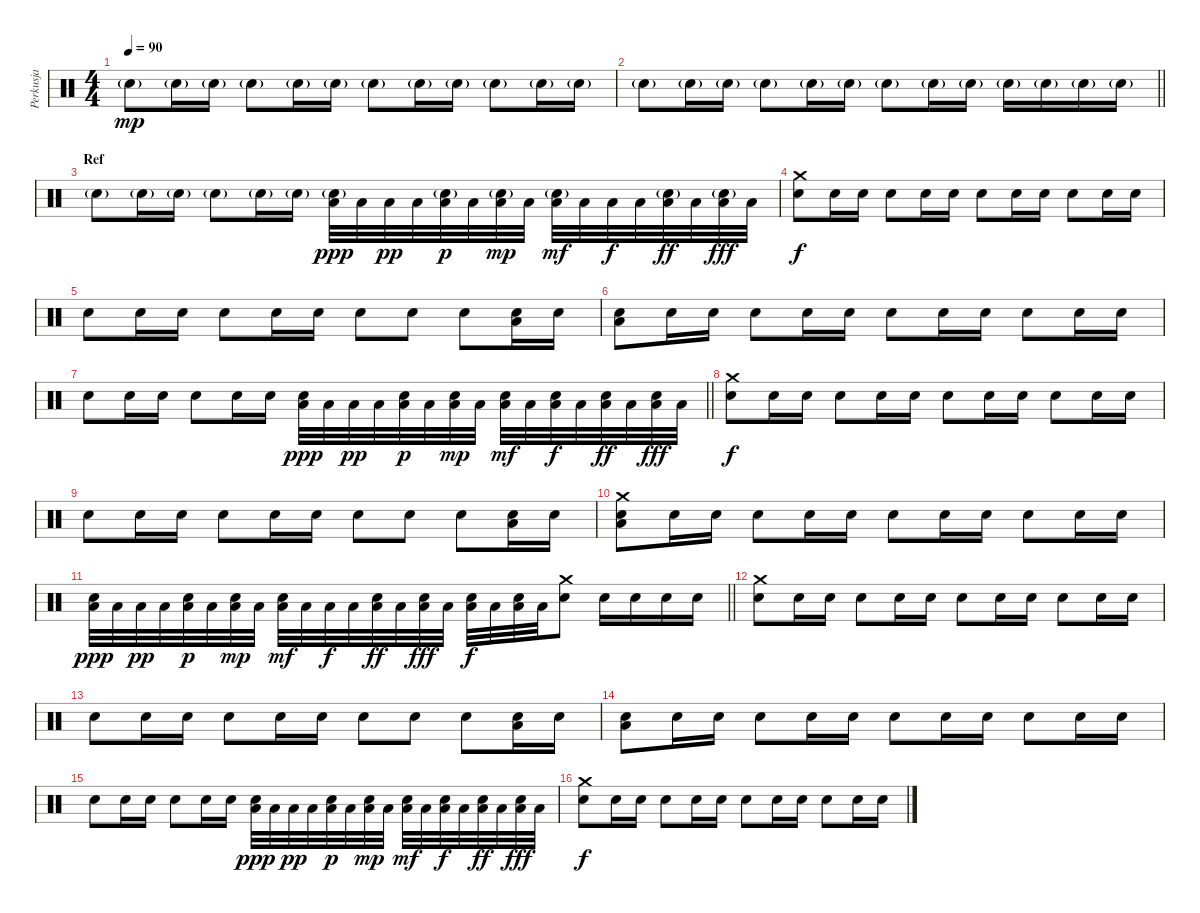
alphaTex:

\track ("Perkusja" "Perkusja") {instrument percussion}
\staff {score}
\articulation defaults
\ts (4 4)
\tempo 90
\clef neutral
\ks c "Electric Snare (hit)"{g}.8{dy mp} "Electric Snare (hit)"{g}.16 "Electric Snare (hit)"{g}.16 "Electric Snare (hit)"{g}.8 "Electric Snare (hit)"{g}.16 "Electric Snare (hit)"{g}.16 "Electric Snare (hit)"{g}.8 "Electric Snare (hit)"{g}.16 "Electric Snare (hit)"{g}.16 "Electric Snare (hit)"{g}.8 "Electric Snare (hit)"{g}.16 "Electric Snare (hit)"{g}.16
|
\barLineRight lightlight "Electric Snare (hit)"{g}.8 "Electric Snare (hit)"{g}.16 "Electric Snare (hit)"{g}.16 "Electric Snare (hit)"{g}.8 "Electric Snare (hit)"{g}.16 "Electric Snare (hit)"{g}.16 "Electric Snare (hit)"{g}.8 "Electric Snare (hit)"{g}.16 "Electric Snare (hit)"{g}.16 "Electric Snare (hit)"{g}.16 "Electric Snare (hit)"{g}.16 "Electric Snare (hit)"{g}.16 "Electric Snare (hit)"{g}.16
|
\section ("" "Ref")
"Electric Snare (hit)"{g}.8 "Electric Snare (hit)"{g}.16 "Electric Snare (hit)"{g}.16 "Electric Snare (hit)"{g}.8 "Electric Snare (hit)"{g}.16 "Electric Snare (hit)"{g}.16 ("Electric Snare (hit)"{g} "Low Floor Tom (hit)").32{dy ppp} "Low Floor Tom (hit)".32 "Low Floor Tom (hit)".32{dy pp} "Low Floor Tom (hit)".32 ("Electric Snare (hit)"{g} "Low Floor Tom (hit)").32{dy p} "Low Floor Tom (hit)".32 ("Electric Snare (hit)"{g} "Low Floor Tom (hit)").32{dy mp} "Low Floor Tom (hit)".32 ("Electric Snare (hit)"{g} "Low Floor Tom (hit)").32{dy mf} "Low Floor Tom (hit)".32 "Low Floor Tom (hit)".32{dy f} "Low Floor Tom (hit)".32 ("Electric Snare (hit)"{g} "Low Floor Tom (hit)").32{dy ff} "Low Floor Tom (hit)".32 ("Electric Snare (hit)"{g} "Low Floor Tom (hit)").32{dy fff} "Low Floor Tom (hit)".32 |
("Crash medium (hit)" "Electric Snare (hit)").8{dy f} "Electric Snare (hit)".16 "Electric Snare (hit)".16 "Electric Snare (hit)".8 "Electric Snare (hit)".16 "Electric Snare (hit)".16 "Electric Snare (hit)".8 "Electric Snare (hit)".16 "Electric Snare (hit)".16 "Electric Snare (hit)".8 "Electric Snare (hit)".16 "Electric Snare (hit)".16 |
"Electric Snare (hit)".8 "Electric Snare (hit)".16 "Electric Snare (hit)".16 "Electric Snare (hit)".8 "Electric Snare (hit)".16 "Electric Snare (hit)".16 "Electric Snare (hit)".8 "Electric Snare (hit)".8 "Electric Snare (hit)".8 ("Electric Snare (hit)" "Low Floor Tom (hit)").16 "Electric Snare (hit)".16 |
("Electric Snare (hit)" "Low Floor Tom (hit)").8 "Electric Snare (hit)".16 "Electric Snare (hit)".16 "Electric Snare (hit)".8 "Electric Snare (hit)".16 "Electric Snare (hit)".16 "Electric Snare (hit)".8 "Electric Snare (hit)".16 "Electric Snare (hit)".16 "Electric Snare (hit)".8 "Electric Snare (hit)".16 "Electric Snare (hit)".16 |
\barLineRight lightlight "Electric Snare (hit)".8 "Electric Snare (hit)".16 "Electric Snare (hit)".16 "Electric Snare (hit)".8 "Electric Snare (hit)".16 "Electric Snare (hit)".16
("Electric Snare (hit)" "Low Floor Tom (hit)").32{dy ppp} "Low Floor Tom (hit)".32 "Low Floor Tom (hit)".32{dy pp} "Low Floor Tom (hit)".32 ("Electric Snare (hit)" "Low Floor Tom (hit)").32{dy p} "Low Floor Tom (hit)".32 ("Electric Snare (hit)" "Low Floor Tom (hit)").32{dy mp} "Low Floor Tom (hit)".32 ("Electric Snare (hit)" "Low Floor Tom (hit)").32{dy mf} "Low Floor Tom (hit)".32 ("Electric Snare (hit)" "Low Floor Tom (hit)").32{dy f} "Low Floor Tom (hit)".32 ("Electric Snare (hit)" "Low Floor Tom (hit)").32{dy ff} "Low Floor Tom (hit)".32 ("Electric Snare (hit)" "Low Floor Tom (hit)").32{dy fff} "Low Floor Tom (hit)".32 |
("Crash medium (hit)" "Electric Snare (hit)").8{dy f} "Electric Snare (hit)".16 "Electric Snare (hit)".16 "Electric Snare (hit)".8 "Electric Snare (hit)".16 "Electric Snare (hit)".16 "Electric Snare (hit)".8 "Electric Snare (hit)".16 "Electric Snare (hit)".16 "Electric Snare (hit)".8 "Electric Snare (hit)".16 "Electric Snare (hit)".16 |
"Electric Snare (hit)".8 "Electric Snare (hit)".16 "Electric Snare (hit)".16 "Electric Snare (hit)".8 "Electric Snare (hit)".16 "Electric Snare (hit)".16 "Electric Snare (hit)".8 "Electric Snare (hit)".8 "Electric Snare (hit)".8 ("Electric Snare (hit)" "Low Floor Tom (hit)").16 "Electric Snare (hit)".16 |
("Crash medium (hit)" "Electric Snare (hit)" "Low Floor Tom (hit)").8 "Electric Snare (hit)".16 "Electric Snare (hit)".16 "Electric Snare (hit)".8 "Electric Snare (hit)".16 "Electric Snare (hit)".16 "Electric Snare (hit)".8 "Electric Snare (hit)".16 "Electric Snare (hit)".16 "Electric Snare (hit)".8 "Electric Snare (hit)".16 "Electric Snare (hit)".16 |
\barLineRight lightlight
("Electric Snare (hit)" "Low Floor Tom (hit)").32{dy ppp} "Low Floor Tom (hit)".32 "Low Floor Tom (hit)".32{dy pp} "Low Floor Tom (hit)".32 ("Electric Snare (hit)" "Low Floor Tom (hit)").32{dy p} "Low Floor Tom (hit)".32 ("Electric Snare (hit)" "Low Floor Tom (hit)").32{dy mp} "Low Floor Tom (hit)".32 ("Electric Snare (hit)" "Low Floor Tom (hit)").32{dy mf} "Low Floor Tom (hit)".32 "Low Floor Tom (hit)".32{dy f} "Low Floor Tom (hit)".32 ("Electric Snare (hit)" "Low Floor Tom (hit)").32{dy ff} "Low Floor Tom (hit)".32 ("Electric Snare (hit)" "Low Floor Tom (hit)").32{dy fff} "Low Floor Tom (hit)".32 ("Electric Snare (hit)" "Low Floor Tom (hit)").32{dy f} "Low Floor Tom (hit)".32 ("Electric Snare (hit)" "Low Floor Tom (hit)").32 "Low Floor Tom (hit)".32 ("Crash medium (hit)" "Electric Snare (hit)").8 "Electric Snare (hit)".16 "Electric Snare (hit)".16 "Electric Snare (hit)".16 "Electric Snare (hit)".16 |
("Crash medium (hit)" "Electric Snare (hit)").8 "Electric Snare (hit)".16 "Electric Snare (hit)".16 "Electric Snare (hit)".8 "Electric Snare (hit)".16 "Electric Snare (hit)".16 "Electric Snare (hit)".8 "Electric Snare (hit)".16 "Electric Snare (hit)".16 "Electric Snare (hit)".8 "Electric Snare (hit)".16 "Electric Snare (hit)".16 |
"Electric Snare (hit)".8 "Electric Snare (hit)".16 "Electric Snare (hit)".16 "Electric Snare (hit)".8 "Electric Snare (hit)".16 "Electric Snare (hit)".16 "Electric Snare (hit)".8 "Electric Snare (hit)".8 "Electric Snare (hit)".8 ("Electric Snare (hit)" "Low Floor Tom (hit)").16 "Electric Snare (hit)".16 |
("Electric Snare (hit)" "Low Floor Tom (hit)").8 "Electric Snare (hit)".16 "Electric Snare (hit)".16 "Electric Snare (hit)".8 "Electric Snare (hit)".16 "Electric Snare (hit)".16 "Electric Snare (hit)".8 "Electric Snare (hit)".16 "Electric Snare (hit)".16 "Electric Snare (hit)".8 "Electric Snare (hit)".16 "Electric Snare (hit)".16 |
"Electric Snare (hit)".8 "Electric Snare (hit)".16 "Electric Snare (hit)".16 "Electric Snare (hit)".8 "Electric Snare (hit)".16 "Electric Snare (hit)".16 ("Electric Snare (hit)" "Low Floor Tom (hit)").32{dy ppp} "Low Floor Tom (hit)".32 "Low Floor Tom (hit)".32{dy pp} "Low Floor Tom (hit)".32 ("Electric Snare (hit)" "Low Floor Tom (hit)").32{dy p} "Low Floor Tom (hit)".32 ("Electric Snare (hit)" "Low Floor Tom (hit)").32{dy mp} "Low Floor Tom (hit)".32 ("Electric Snare (hit)" "Low Floor Tom (hit)").32{dy mf} "Low Floor Tom (hit)".32 ("Electric Snare (hit)" "Low Floor Tom (hit)").32{dy f} "Low Floor Tom (hit)".32 ("Electric Snare (hit)" "Low Floor Tom (hit)").32{dy ff} "Low Floor Tom (hit)".32 ("Electric Snare (hit)" "Low Floor Tom (hit)").32{dy fff} "Low Floor Tom (hit)".32 |
("Crash medium (hit)" "Electric Snare (hit)").8{dy f} "Electric Snare (hit)".16 "Electric Snare (hit)".16 "Electric Snare (hit)".8 "Electric Snare (hit)".16 "Electric Snare (hit)".16 "Electric Snare (hit)".8 "Electric Snare (hit)".16 "Electric Snare (hit)".16 "Electric Snare (hit)".8 "Electric Snare (hit)".16 "Electric Snare (hit)".16
